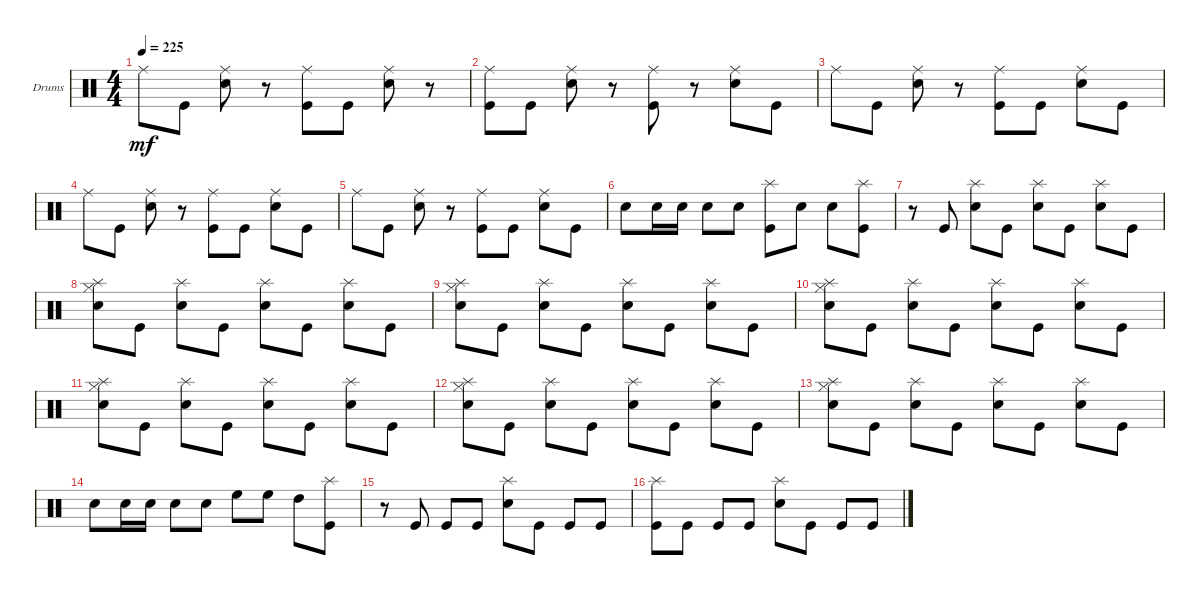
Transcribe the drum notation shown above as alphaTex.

\bracketExtendMode groupsimilarinstruments
\firstSystemTrackNameOrientation horizontal
\otherSystemsTrackNameOrientation horizontal
\track ("Drumkit" "Drums") {instrument percussion}
\staff {score}
\articulation defaults
\ts (4 4)
\tempo 225
\clef neutral
\ks c "Ride (middle)".8{dy mf} "Kick (hit)".8
("Snare (hit) 2" "Ride (middle)").8 r.8 ("Kick (hit)" "Ride (middle)").8 "Kick (hit)".8 ("Snare (hit) 2" "Ride (middle)").8 r.8 |
("Ride (middle)" "Kick (hit)").8 "Kick (hit)".8 ("Snare (hit) 2" "Ride (middle)").8 r.8 ("Kick (hit)" "Ride (middle)").8 r.8 ("Snare (hit) 2" "Ride (middle)").8 "Kick (hit)".8 |
"Ride (middle)".8 "Kick (hit)".8 ("Snare (hit) 2" "Ride (middle)").8 r.8 ("Kick (hit)" "Ride (middle)").8 "Kick (hit)".8 ("Snare (hit) 2" "Ride (middle)").8 "Kick (hit)".8 |
"Ride (middle)".8 "Kick (hit)".8 ("Snare (hit) 2" "Ride (middle)").8 r.8 ("Kick (hit)" "Ride (middle)").8 "Kick (hit)".8 ("Snare (hit) 2" "Ride (middle)").8 "Kick (hit)".8 |
"Ride (middle)".8 "Kick (hit)".8 ("Snare (hit) 2" "Ride (middle)").8 r.8 ("Kick (hit)" "Ride (middle)").8 "Kick (hit)".8 ("Snare (hit) 2" "Ride (middle)").8 "Kick (hit)".8 |
"Snare (hit) 2".8 "Snare (hit) 2".16 "Snare (hit) 2".16 "Snare (hit) 2".8 "Snare (hit) 2".8 ("Kick (hit)" "Splash (hit)").8 "Snare (hit) 2".8 "Snare (hit) 2".8 ("Kick (hit)" "Splash (hit)").8 |
r.8 "Kick (hit)".8 ("Snare (hit) 2" "Splash (hit)").8 "Kick (hit)".8 ("Snare (hit) 2" "Splash (hit)").8 "Kick (hit)".8 ("Snare (hit) 2" "Splash (hit)").8 "Kick (hit)".8 |
("Snare (hit) 2" "Hi-Hat (closed)" "Splash (hit)").8 "Kick (hit)".8 ("Snare (hit) 2" "Splash (hit)").8 "Kick (hit)".8 ("Snare (hit) 2" "Splash (hit)").8 "Kick (hit)".8 ("Snare (hit) 2" "Splash (hit)").8 "Kick (hit)".8 |
("Snare (hit) 2" "Hi-Hat (closed)" "Splash (hit)").8 "Kick (hit)".8 ("Snare (hit) 2" "Splash (hit)").8 "Kick (hit)".8 ("Snare (hit) 2" "Splash (hit)").8 "Kick (hit)".8 ("Snare (hit) 2" "Splash (hit)").8 "Kick (hit)".8 |
("Snare (hit) 2" "Hi-Hat (closed)" "Splash (hit)").8 "Kick (hit)".8 ("Snare (hit) 2" "Splash (hit)").8 "Kick (hit)".8 ("Snare (hit) 2" "Splash (hit)").8 "Kick (hit)".8 ("Snare (hit) 2" "Splash (hit)").8 "Kick (hit)".8 |
("Snare (hit) 2" "Hi-Hat (closed)" "Splash (hit)").8 "Kick (hit)".8 ("Snare (hit) 2" "Splash (hit)").8 "Kick (hit)".8 ("Snare (hit) 2" "Splash (hit)").8 "Kick (hit)".8 ("Snare (hit) 2" "Splash (hit)").8 "Kick (hit)".8 |
("Snare (hit) 2" "Hi-Hat (closed)" "Splash (hit)").8 "Kick (hit)".8 ("Snare (hit) 2" "Splash (hit)").8 "Kick (hit)".8 ("Snare (hit) 2" "Splash (hit)").8 "Kick (hit)".8 ("Snare (hit) 2" "Splash (hit)").8 "Kick (hit)".8 |
("Snare (hit) 2" "Hi-Hat (closed)" "Splash (hit)").8 "Kick (hit)".8 ("Snare (hit) 2" "Splash (hit)").8 "Kick (hit)".8 ("Snare (hit) 2" "Splash (hit)").8 "Kick (hit)".8 ("Snare (hit) 2" "Splash (hit)").8 "Kick (hit)".8 |
"Snare (hit) 2".8 "Snare (hit) 2".16 "Snare (hit) 2".16 "Snare (hit) 2".8 "Snare (hit) 2".8 "High Floor Tom (hit)".8 "High Floor Tom (hit)".8 "High Tom (hit)".8 ("Kick (hit)" "Splash (hit)").8 |
r.8 "Kick (hit)".8 "Kick (hit)".8 "Kick (hit)".8 ("Snare (hit) 2" "Splash (hit)").8 "Kick (hit)".8 "Kick (hit)".8 "Kick (hit)".8 |
("Kick (hit)" "Splash (hit)").8 "Kick (hit)".8 "Kick (hit)".8 "Kick (hit)".8 ("Snare (hit) 2" "Splash (hit)").8 "Kick (hit)".8 "Kick (hit)".8 "Kick (hit)".8
